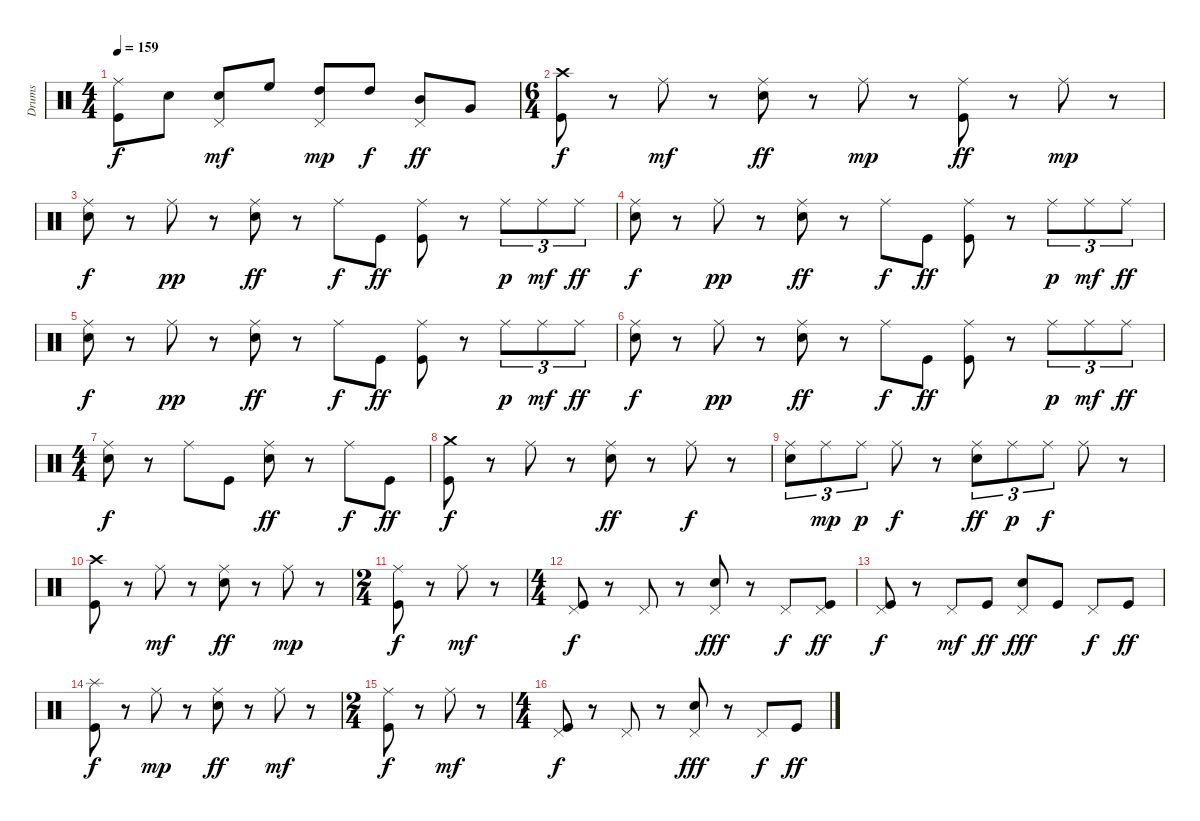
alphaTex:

\track ("Drums" "Drums") {instrument percussion}
\staff {score}
\articulation defaults
\ts (4 4)
\tempo 159
\clef neutral
\ks c
("Kick (hit)" "Ride (middle)").8{dy f} "Electric Snare (hit)".8 ("Electric Snare (hit)" "Pedal Hi-Hat (hit)").8{dy mf} "High Floor Tom (hit)".8 ("High Tom (hit)" "Pedal Hi-Hat (hit)").8{dy mp} "High Tom (hit)".8{dy f} ("Mid Tom (hit)" "Pedal Hi-Hat (hit)").8{dy ff} "Very Low Tom (hit)".8 |
\ts (6 4)
("Kick (hit)" "Crash high (hit)").8{dy f} r.8 "Ride (middle)".8{dy mf} r.8 ("Electric Snare (hit)" "Ride (middle)").8{dy ff} r.8 "Ride (middle)".8{dy mp} r.8 ("Kick (hit)" "Ride (middle)").8{dy ff} r.8 "Ride (middle)".8{dy mp} r.8 |
("Electric Snare (hit)" "Ride (middle)").8{dy f} r.8 "Ride (middle)".8{dy pp} r.8 ("Electric Snare (hit)" "Ride (middle)").8{dy ff} r.8 "Ride (middle)".8{dy f} "Kick (hit)".8{dy ff} ("Kick (hit)" "Ride (middle)").8 r.8 "Ride (middle)".8{tu (3 2) dy p} "Ride (middle)".8{tu (3 2) dy mf} "Ride (middle)".8{tu (3 2) dy ff} |
("Electric Snare (hit)" "Ride (middle)").8{dy f} r.8 "Ride (middle)".8{dy pp} r.8 ("Electric Snare (hit)" "Ride (middle)").8{dy ff} r.8 "Ride (middle)".8{dy f} "Kick (hit)".8{dy ff} ("Kick (hit)" "Ride (middle)").8 r.8 "Ride (middle)".8{tu (3 2) dy p} "Ride (middle)".8{tu (3 2) dy mf} "Ride (middle)".8{tu (3 2) dy ff} |
("Electric Snare (hit)" "Ride (middle)").8{dy f} r.8 "Ride (middle)".8{dy pp} r.8 ("Electric Snare (hit)" "Ride (middle)").8{dy ff} r.8 "Ride (middle)".8{dy f} "Kick (hit)".8{dy ff} ("Kick (hit)" "Ride (middle)").8 r.8 "Ride (middle)".8{tu (3 2) dy p} "Ride (middle)".8{tu (3 2) dy mf} "Ride (middle)".8{tu (3 2) dy ff} |
("Electric Snare (hit)" "Ride (middle)").8{dy f} r.8 "Ride (middle)".8{dy pp} r.8 ("Electric Snare (hit)" "Ride (middle)").8{dy ff} r.8 "Ride (middle)".8{dy f} "Kick (hit)".8{dy ff} ("Kick (hit)" "Ride (middle)").8 r.8 "Ride (middle)".8{tu (3 2) dy p} "Ride (middle)".8{tu (3 2) dy mf} "Ride (middle)".8{tu (3 2) dy ff} |
\ts (4 4)
("Electric Snare (hit)" "Ride (middle)").8{dy f} r.8 "Ride (middle)".8 "Kick (hit)".8 ("Electric Snare (hit)" "Ride (middle)").8{dy ff} r.8 "Ride (middle)".8{dy f} "Kick (hit)".8{dy ff} |
("Kick (hit)" "Crash medium (hit)").8{dy f} r.8 "Ride (middle)".8 r.8 ("Electric Snare (hit)" "Ride (middle)").8{dy ff} r.8 "Ride (middle)".8{dy f} r.8 |
("Electric Snare (hit)" "Ride (middle)").8{tu (3 2)} "Ride (middle)".8{tu (3 2) dy mp} "Ride (middle)".8{tu (3 2) dy p} "Ride (middle)".8{dy f} r.8 ("Electric Snare (hit)" "Ride (middle)").8{tu (3 2) dy ff} "Ride (middle)".8{tu (3 2) dy p} "Ride (middle)".8{tu (3 2) dy f} "Ride (middle)".8 r.8 |
("Kick (hit)" "Crash high (hit)").8 r.8 "Ride (middle)".8{dy mf} r.8 ("Electric Snare (hit)" "Ride (middle)").8{dy ff} r.8 "Ride (middle)".8{dy mp} r.8 |
\ts (2 4)
("Kick (hit)" "Ride (middle)").8{dy f} r.8 "Ride (middle)".8{dy mf} r.8 |
\ts (4 4)
("Kick (hit)" "Pedal Hi-Hat (hit)").8{dy f} r.8 "Pedal Hi-Hat (hit)".8 r.8 ("Electric Snare (hit)" "Pedal Hi-Hat (hit)").8{dy fff} r.8 "Pedal Hi-Hat (hit)".8{dy f} ("Kick (hit)" "Pedal Hi-Hat (hit)").8{dy ff} |
("Kick (hit)" "Pedal Hi-Hat (hit)").8{dy f} r.8 "Pedal Hi-Hat (hit)".8{dy mf} "Kick (hit)".8{dy ff} ("Electric Snare (hit)" "Pedal Hi-Hat (hit)").8{dy fff} "Kick (hit)".8 "Pedal Hi-Hat (hit)".8{dy f} "Kick (hit)".8{dy ff} |
("Kick (hit)" "Splash (hit)").8{dy f} r.8 "Ride (middle)".8{dy mp} r.8 ("Electric Snare (hit)" "Ride (middle)").8{dy ff} r.8 "Ride (middle)".8{dy mf} r.8 |
\ts (2 4)
("Kick (hit)" "Ride (middle)").8{dy f} r.8 "Ride (middle)".8{dy mf} r.8 |
\ts (4 4)
("Kick (hit)" "Pedal Hi-Hat (hit)").8{dy f} r.8 "Pedal Hi-Hat (hit)".8 r.8 ("Electric Snare (hit)" "Pedal Hi-Hat (hit)").8{dy fff} r.8 "Pedal Hi-Hat (hit)".8{dy f} "Kick (hit)".8{dy ff}
